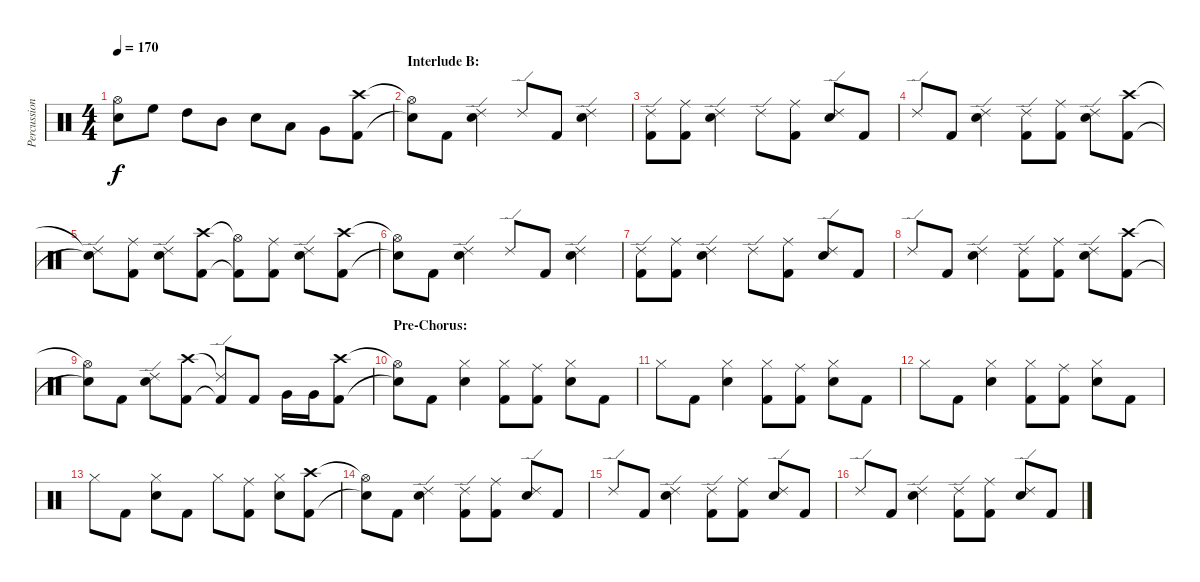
\track ("Percussion" "Percussion") {instrument percussion}
\staff {score}
\articulation defaults
\ts (4 4)
\tempo 170
\clef neutral
\ks c
("Hi-Hat (open)"{t} "Snare (hit)"{t}).8{dy f} "High Floor Tom (hit)".8 "High Tom (hit)".8 "Mid Tom (hit)".8 "Snare (hit) 2".8 "Low Tom (hit)".8 "Very Low Tom (hit)".8 ("Crash high (hit)" "Kick (hit) 2").8 |
\section ("" "Interlude B:")
("Hi-Hat (open)"{t} "Snare (hit)"{t}).8 "Kick (hit) 2".8 ("Ride (edge) 2" "Snare (hit) 2").4 "Ride (edge) 2".8 "Kick (hit) 2".8 ("Ride (edge) 2" "Snare (hit) 2").4 |
("Ride (edge) 2" "Kick (hit) 2").8 ("Ride (middle)" "Kick (hit) 2").8 ("Ride (edge) 2" "Snare (hit) 2").4 "Ride (edge) 2".8 ("Ride (middle)" "Kick (hit) 2").8 ("Ride (edge) 2" "Snare (hit) 2").8 "Kick (hit) 2".8 |
"Ride (edge) 2".8 "Kick (hit) 2".8 ("Ride (edge) 2" "Snare (hit) 2").4 ("Ride (edge) 2" "Kick (hit) 2").8 ("Ride (middle)" "Kick (hit) 2").8 ("Ride (edge) 2" "Snare (hit) 2").8 ("Crash high (hit)" "Kick (hit) 2").8 |
("Ride (edge) 2"{t} "Snare (hit)"{t}).8 ("Ride (middle)" "Kick (hit) 2").8 ("Ride (edge) 2" "Snare (hit) 2").8 ("Crash high (hit)" "Kick (hit) 2").8 ("Hi-Hat (open)"{t} "Kick (hit) 2"{t}).8 ("Ride (middle)" "Kick (hit) 2").8 ("Ride (edge) 2" "Snare (hit) 2").8 ("Crash high (hit)" "Kick (hit) 2").8 |
("Hi-Hat (open)"{t} "Snare (hit)"{t}).8 "Kick (hit) 2".8 ("Ride (edge) 2" "Snare (hit) 2").4 "Ride (edge) 2".8 "Kick (hit) 2".8 ("Ride (edge) 2" "Snare (hit) 2").4 |
("Ride (edge) 2" "Kick (hit) 2").8 ("Ride (middle)" "Kick (hit) 2").8 ("Ride (edge) 2" "Snare (hit) 2").4 "Ride (edge) 2".8 ("Ride (middle)" "Kick (hit) 2").8 ("Ride (edge) 2" "Snare (hit) 2").8 "Kick (hit) 2".8 |
"Ride (edge) 2".8 "Kick (hit) 2".8 ("Ride (edge) 2" "Snare (hit) 2").4 ("Ride (edge) 2" "Kick (hit) 2").8 ("Ride (middle)" "Kick (hit) 2").8 ("Ride (edge) 2" "Snare (hit) 2").8 ("Crash high (hit)" "Kick (hit) 2").8 |
("Hi-Hat (open)"{t} "Snare (hit)"{t}).8 "Kick (hit) 2".8 ("Ride (edge) 2" "Snare (hit) 2").8 ("Crash high (hit)" "Kick (hit) 2").8 ("Ride (edge) 2"{t} "Kick (hit) 2"{t}).8 "Kick (hit) 2".8 "Very Low Tom (hit)".16 "Very Low Tom (hit)".16 ("Crash high (hit)" "Kick (hit) 2").8 |
\section ("" "Pre-Chorus:")
("Hi-Hat (open)"{t} "Snare (hit)"{t}).8 "Kick (hit) 2".8 ("Hi-Hat (closed)" "Snare (hit) 2").4 ("Hi-Hat (closed)" "Kick (hit) 2").8 ("Ride (middle)" "Kick (hit) 2").8 ("Hi-Hat (closed)" "Snare (hit) 2").8 "Kick (hit) 2".8 |
"Hi-Hat (closed)".8 "Kick (hit) 2".8 ("Hi-Hat (closed)" "Snare (hit) 2").4 ("Hi-Hat (closed)" "Kick (hit) 2").8 ("Ride (middle)" "Kick (hit) 2").8 ("Hi-Hat (closed)" "Snare (hit) 2").8 "Kick (hit) 2".8 |
"Hi-Hat (closed)".8 "Kick (hit) 2".8 ("Hi-Hat (closed)" "Snare (hit) 2").4 ("Hi-Hat (closed)" "Kick (hit) 2").8 ("Ride (middle)" "Kick (hit) 2").8 ("Hi-Hat (closed)" "Snare (hit) 2").8 "Kick (hit) 2".8 |
"Hi-Hat (closed)".8 "Kick (hit) 2".8 ("Hi-Hat (closed)" "Snare (hit) 2").8 "Kick (hit) 2".8 "Hi-Hat (closed)".8 ("Ride (middle)" "Kick (hit) 2").8 ("Hi-Hat (closed)" "Snare (hit) 2").8 ("Crash high (hit)" "Kick (hit) 2").8 |
("Hi-Hat (open)"{t} "Snare (hit)"{t}).8 "Kick (hit) 2".8 ("Ride (edge) 2" "Snare (hit) 2").4 ("Ride (edge) 2" "Kick (hit) 2").8 ("Ride (middle)" "Kick (hit) 2").8 ("Ride (edge) 2" "Snare (hit) 2").8 "Kick (hit) 2".8 |
"Ride (edge) 2".8 "Kick (hit) 2".8 ("Ride (edge) 2" "Snare (hit) 2").4 ("Ride (edge) 2" "Kick (hit) 2").8 ("Ride (middle)" "Kick (hit) 2").8 ("Ride (edge) 2" "Snare (hit) 2").8 "Kick (hit) 2".8 |
"Ride (edge) 2".8 "Kick (hit) 2".8 ("Ride (edge) 2" "Snare (hit) 2").4 ("Ride (edge) 2" "Kick (hit) 2").8 ("Ride (middle)" "Kick (hit) 2").8 ("Ride (edge) 2" "Snare (hit) 2").8 "Kick (hit) 2".8
